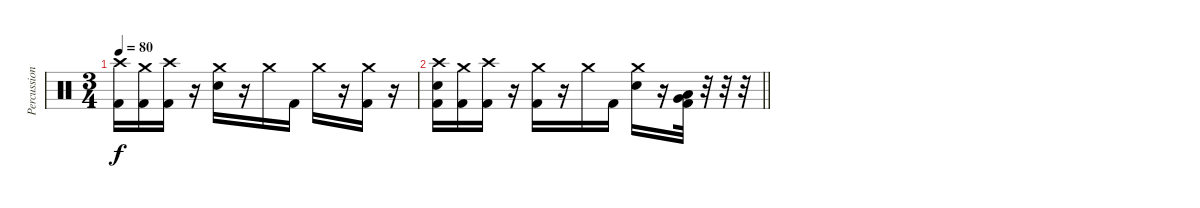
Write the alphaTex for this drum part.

\track ("Percussion" "Percussion") {instrument percussion}
\staff {score}
\articulation defaults
\ts (3 4)
\tempo 80
\clef neutral
\ks c
("Crash high (hit)" "Kick (hit) 2").16{dy f} ("Crash medium (hit)" "Kick (hit) 2").16 ("Crash high (hit)" "Kick (hit) 2").16 r.16 ("Crash medium (hit)" "Snare (hit) 2").16 r.16 "Crash medium (hit)".16 "Kick (hit) 2".16 "Crash medium (hit)".16 r.16 ("Crash medium (hit)" "Kick (hit) 2").16 r.16 |
\barLineRight lightlight
("Crash high (hit)" "Snare (hit) 2" "Kick (hit) 2").16 ("Crash medium (hit)" "Kick (hit) 2").16 ("Crash high (hit)" "Kick (hit) 2").16 r.16 ("Crash medium (hit)" "Kick (hit) 2").16 r.16 "Crash medium (hit)".16 "Kick (hit) 2".16 ("Crash medium (hit)" "Snare (hit) 2").16 r.16 ("Very Low Tom (hit)" "Low Floor Tom (hit)" "Kick (hit) 2").32 r.32 r.32 r.32
